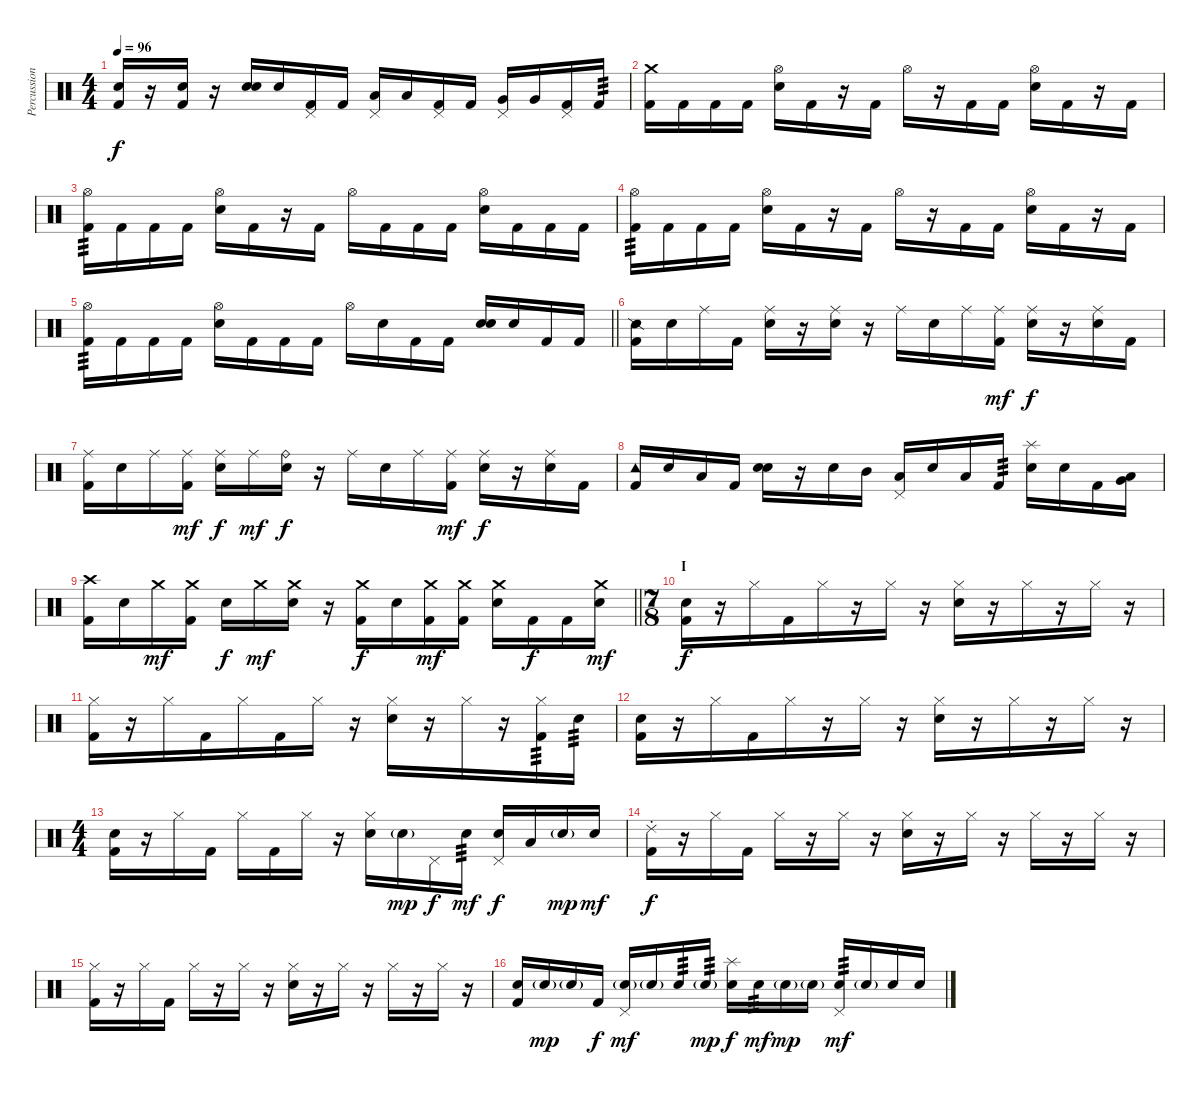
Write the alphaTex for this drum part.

\track ("Percussion" "Percussion") {instrument percussion}
\staff {score}
\articulation defaults
\ts (4 4)
\tempo 96
\clef neutral
\ks c
("Snare (hit)" "Kick (hit) 2").16{dy f} r.16 ("Snare (hit)" "Kick (hit) 2").16 r.16 ("Snare (hit)" "Snare (hit) 2").16 "Snare (hit) 2".16 ("Pedal Hi-Hat (hit)" "Kick (hit) 2").16 "Kick (hit) 2".16 ("Pedal Hi-Hat (hit)" "Low Tom (hit)").16 "Low Tom (hit)".16 ("Pedal Hi-Hat (hit)" "Kick (hit) 2").16 "Kick (hit) 2".16 ("Pedal Hi-Hat (hit)" "Very Low Tom (hit)").16 "Very Low Tom (hit)".16 ("Pedal Hi-Hat (hit)" "Kick (hit) 2").16 "Kick (hit) 2".16{tp 3} |
("Crash medium (hit)" "Kick (hit) 2").16 "Kick (hit) 2".16 "Kick (hit) 2".16 "Kick (hit) 2".16 ("Hi-Hat (open)" "Snare (hit) 2").16 "Kick (hit) 2".16 r.16 "Kick (hit) 2".16 "Hi-Hat (open)".16 r.16 "Kick (hit) 2".16 "Kick (hit) 2".16 ("Hi-Hat (open)" "Snare (hit) 2").16 "Kick (hit) 2".16 r.16 "Kick (hit) 2".16 |
("Hi-Hat (open)" "Kick (hit) 2").16{tp 3} "Kick (hit) 2".16 "Kick (hit) 2".16 "Kick (hit) 2".16 ("Hi-Hat (open)" "Snare (hit) 2").16 "Kick (hit) 2".16 r.16 "Kick (hit) 2".16 "Hi-Hat (open)".16 "Kick (hit) 2".16 "Kick (hit) 2".16 "Kick (hit) 2".16 ("Hi-Hat (open)" "Snare (hit) 2").16 "Kick (hit) 2".16 "Kick (hit) 2".16 "Kick (hit) 2".16 |
("Hi-Hat (open)" "Kick (hit) 2").16{tp 3} "Kick (hit) 2".16 "Kick (hit) 2".16 "Kick (hit) 2".16 ("Hi-Hat (open)" "Snare (hit) 2").16 "Kick (hit) 2".16 r.16 "Kick (hit) 2".16 "Hi-Hat (open)".16 r.16 "Kick (hit) 2".16 "Kick (hit) 2".16 ("Hi-Hat (open)" "Snare (hit) 2").16 "Kick (hit) 2".16 r.16 "Kick (hit) 2".16 |
\barLineRight lightlight
("Hi-Hat (open)" "Kick (hit) 2").16{tp 3} "Kick (hit) 2".16 "Kick (hit) 2".16 "Kick (hit) 2".16 ("Hi-Hat (open)" "Snare (hit) 2").16 "Kick (hit) 2".16 "Kick (hit) 2".16 "Kick (hit) 2".16 "Hi-Hat (open)".16 "Snare (hit) 2".16 "Kick (hit) 2".16 "Kick (hit) 2".16 ("Snare (hit)" "Snare (hit) 2").16 "Snare (hit) 2".16 "Kick (hit) 2".16 "Kick (hit) 2".16 |
("Snare (side stick) 2" "Kick (hit) 2").16 "Snare (hit) 2".16 "Ride (middle)".16 "Kick (hit) 2".16 ("Ride (middle)" "Snare (hit) 2").16 r.16 ("Ride (middle)" "Snare (hit) 2").16 r.16 "Ride (middle)".16 "Snare (hit) 2".16 "Ride (middle)".16 ("Ride (middle)" "Kick (hit) 2").16{dy mf} ("Ride (middle)" "Snare (hit) 2").16{dy f} r.16 ("Ride (middle)" "Snare (hit) 2").16 "Kick (hit) 2".16 |
("Ride (middle)" "Kick (hit) 2").16 "Snare (hit) 2".16 "Ride (middle)".16 ("Ride (middle)" "Kick (hit) 2").16{dy mf} ("Ride (middle)" "Snare (hit) 2").16{dy f} "Ride (middle)".16{dy mf} ("Ride (bell)" "Snare (hit) 2").16{dy f} r.16 "Ride (middle)".16 "Snare (hit) 2".16 "Ride (middle)".16 ("Ride (middle)" "Kick (hit) 2").16{dy mf} ("Ride (middle)" "Snare (hit) 2").16{dy f} r.16 ("Ride (middle)" "Snare (hit) 2").16 "Kick (hit) 2".16 |
("Tambourine (hit)" "Kick (hit) 2").16 "Snare (hit) 2".16 "Low Tom (hit)".16 "Kick (hit) 2".16 ("Snare (hit)" "Snare (hit) 2").16 r.16 "Snare (hit) 2".16 "Mid Tom (hit)".16 ("Pedal Hi-Hat (hit)" "Low Tom (hit)").16 "Snare (hit) 2".16 "Low Floor Tom (hit)".16 "Kick (hit) 2".16{tp 3} ("Splash (hit)" "Snare (hit) 2").16 "Snare (hit) 2".16 "Kick (hit) 2".16 ("Low Tom (hit)" "Very Low Tom (hit)").16{bu 60} |
\barLineRight lightlight
("Crash high (hit)" "Kick (hit) 2").16 "Snare (hit) 2".16 "Crash medium (hit)".16{dy mf} ("Crash medium (hit)" "Kick (hit) 2").16 "Snare (hit) 2".16{dy f} "Crash medium (hit)".16{dy mf} ("Crash medium (hit)" "Snare (hit) 2").16 r.16 ("Crash medium (hit)" "Kick (hit) 2").16{dy f} "Snare (hit) 2".16 ("Crash medium (hit)" "Kick (hit) 2").16{dy mf} ("Crash medium (hit)" "Kick (hit) 2").16 ("Crash medium (hit)" "Snare (hit) 2").16 "Kick (hit) 2".16{dy f} "Kick (hit) 2".16 ("Crash medium (hit)" "Snare (hit) 2").16{dy mf} |
\ts (7 8)
\section ("" "I")
("Snare (hit)" "Kick (hit) 2").16{dy f} r.16 "Hi-Hat (closed)".16 "Kick (hit) 2".16 "Hi-Hat (closed)".16 r.16 "Hi-Hat (closed)".16 r.16 ("Hi-Hat (closed)" "Snare (hit) 2").16 r.16 "Hi-Hat (closed)".16 r.16 "Hi-Hat (closed)".16 r.16 |
("Hi-Hat (closed)" "Kick (hit) 2").16 r.16 "Hi-Hat (closed)".16 "Kick (hit) 2".16 "Hi-Hat (closed)".16 "Kick (hit) 2".16 "Hi-Hat (closed)".16 r.16 ("Hi-Hat (closed)" "Snare (hit) 2").16 r.16 "Hi-Hat (closed)".16 r.16 ("Hi-Hat (closed)" "Kick (hit) 2").16{tp 3} "Snare (hit)".16{tp 3} |
("Snare (hit)" "Kick (hit) 2").16 r.16 "Hi-Hat (closed)".16 "Kick (hit) 2".16 "Hi-Hat (closed)".16 r.16 "Hi-Hat (closed)".16 r.16 ("Hi-Hat (closed)" "Snare (hit) 2").16 r.16 "Hi-Hat (closed)".16 r.16 "Hi-Hat (closed)".16 r.16 |
\ts (4 4)
("Snare (hit)" "Kick (hit) 2").16 r.16 "Hi-Hat (closed)".16 "Kick (hit) 2".16 "Hi-Hat (closed)".16 "Kick (hit) 2".16 "Hi-Hat (closed)".16 r.16 ("Hi-Hat (closed)" "Snare (hit) 2").16 "Snare (hit) 2"{g}.16{dy mp} "Pedal Hi-Hat (hit)".16{dy f} "Snare (hit) 2".16{tp 3 dy mf} ("Pedal Hi-Hat (hit)" "Snare (hit) 2").16{dy f} "Low Tom (hit)".16 "Snare (hit) 2"{g}.16{dy mp} "Snare (hit) 2".16{dy mf} |
("Ride (choke) 2" "Kick (hit) 2").16{dy f} r.16 "Hi-Hat (closed)".16 "Kick (hit) 2".16 "Hi-Hat (closed)".16 r.16 "Hi-Hat (closed)".16 r.16 ("Hi-Hat (closed)" "Snare (hit) 2").16 r.16 "Hi-Hat (closed)".16 r.16 "Hi-Hat (closed)".16 r.16 "Hi-Hat (closed)".16 r.16 |
("Hi-Hat (closed)" "Kick (hit) 2").16 r.16 "Hi-Hat (closed)".16 "Kick (hit) 2".16 "Hi-Hat (closed)".16 r.16 "Hi-Hat (closed)".16 r.16 ("Hi-Hat (closed)" "Snare (hit) 2").16 r.16 "Hi-Hat (closed)".16 r.16 "Hi-Hat (closed)".16 r.16 "Hi-Hat (closed)".16 r.16 |
("Snare (hit)" "Kick (hit) 2").16 "Snare (hit) 2"{g}.16{dy mp} "Snare (hit) 2"{g}.16 "Kick (hit) 2".16{dy f} ("Pedal Hi-Hat (hit)" "Snare (hit) 2"{g}).16{dy mf} "Snare (hit) 2"{g}.16 "Snare (hit) 2".16{tp 3} "Snare (hit) 2"{g}.16{tp 3 dy mp} ("Splash (hit)" "Snare (hit) 2").16{dy f} "Snare (hit) 2".16{tp 3 dy mf} "Snare (hit) 2"{g}.16{dy mp} "Snare (hit) 2"{g}.16 ("Pedal Hi-Hat (hit)" "Snare (hit) 2").16{tp 3 dy mf} "Snare (hit) 2"{g}.16 "Snare (hit) 2".16 "Snare (hit) 2".16
